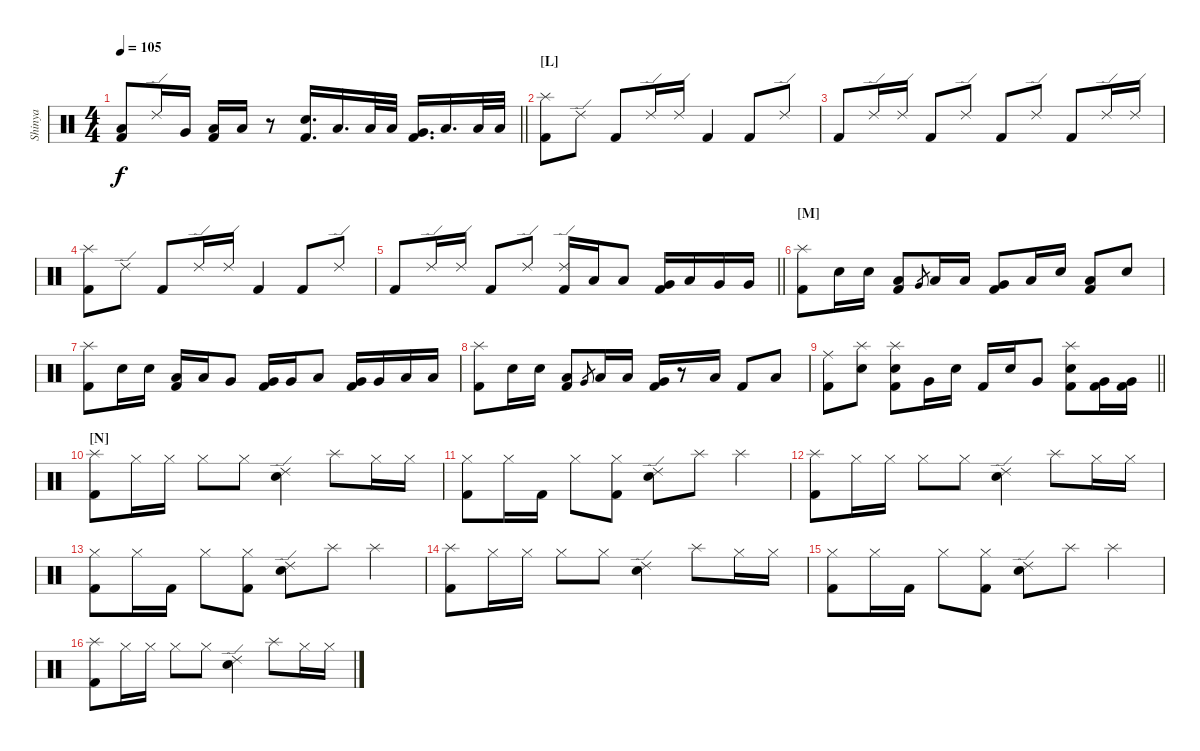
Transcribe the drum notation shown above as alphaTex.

\track ("Shinya" "Shinya") {instrument percussion}
\staff {score}
\articulation defaults
\ts (4 4)
\tempo 105
\clef neutral
\barLineRight lightlight
\ks c
("Low Floor Tom (hit)" "Kick (hit) 2").8{dy f} "Ride (edge) 2".16 "Very Low Tom (hit)".16 ("Low Floor Tom (hit)" "Kick (hit) 2").16 "Low Floor Tom (hit)".16 r.8 ("Snare (hit) 2" "Kick (hit) 2").16{d} "Low Tom (hit)".16{d} "Low Tom (hit)".32 "Low Tom (hit)".32 ("Very Low Tom (hit)" "Kick (hit) 2").16{d} "Low Floor Tom (hit)".16{d} "Low Floor Tom (hit)".32 "Low Floor Tom (hit)".32 |
\section ("" "[L]")
("Splash (hit)" "Kick (hit) 2").8 "Ride (edge) 2".8 "Kick (hit) 2".8 "Ride (edge) 2".16 "Ride (edge) 2".16 "Kick (hit) 2".4 "Kick (hit) 2".8 "Ride (edge) 2".8 |
"Kick (hit) 2".8 "Ride (edge) 2".16 "Ride (edge) 2".16 "Kick (hit) 2".8 "Ride (edge) 2".8 "Kick (hit) 2".8 "Ride (edge) 2".8 "Kick (hit) 2".8 "Ride (edge) 2".16 "Ride (edge) 2".16 |
("Splash (hit)" "Kick (hit) 2").8 "Ride (edge) 2".8 "Kick (hit) 2".8 "Ride (edge) 2".16 "Ride (edge) 2".16 "Kick (hit) 2".4 "Kick (hit) 2".8 "Ride (edge) 2".8 |
\barLineRight lightlight "Kick (hit) 2".8 "Ride (edge) 2".16 "Ride (edge) 2".16 "Kick (hit) 2".8 "Ride (edge) 2".8
("Ride (edge) 2" "Kick (hit) 2").16 "Low Tom (hit)".16 "Low Tom (hit)".8 ("Very Low Tom (hit)" "Kick (hit) 2").16 "Low Tom (hit)".16 "Very Low Tom (hit)".16 "Very Low Tom (hit)".16 |
\section ("" "[M]")
("Splash (hit)" "Kick (hit) 2").8 "Snare (hit) 2".16 "Snare (hit) 2".16 ("Low Tom (hit)" "Kick (hit) 2").8 "Very Low Tom (hit)".8{gr} "Low Tom (hit)".16 "Low Tom (hit)".16 ("Very Low Tom (hit)" "Kick (hit) 2").8 "Low Tom (hit)".16 "Snare (hit) 2".16 ("Low Floor Tom (hit)" "Kick (hit) 2").8 "Snare (hit) 2".8 |
("Splash (hit)" "Kick (hit) 2").8 "Snare (hit) 2".16 "Snare (hit) 2".16 ("Low Tom (hit)" "Kick (hit) 2").16 "Low Tom (hit)".16 "Very Low Tom (hit)".8 ("Very Low Tom (hit)" "Kick (hit) 2").16 "Very Low Tom (hit)".16 "Low Floor Tom (hit)".8 ("Very Low Tom (hit)" "Kick (hit) 2").16 "Very Low Tom (hit)".16 "Low Floor Tom (hit)".16 "Low Floor Tom (hit)".16 |
("Splash (hit)" "Kick (hit) 2").8 "Snare (hit) 2".16 "Snare (hit) 2".16 ("Low Tom (hit)" "Kick (hit) 2").8 "Very Low Tom (hit)".8{gr} "Low Tom (hit)".16 "Low Tom (hit)".16 ("Very Low Tom (hit)" "Kick (hit) 2").16 r.8 "Low Floor Tom (hit)".16 "Kick (hit) 2".8 "Low Floor Tom (hit)".8 |
\barLineRight lightlight
("Ride (middle)" "Kick (hit) 2").8 ("Splash (hit)" "Snare (hit) 2").8 ("Splash (hit)" "Snare (hit) 2" "Kick (hit) 2").8 "Very Low Tom (hit)".16 "Snare (hit) 2".16 "Kick (hit) 2".16 "Snare (hit) 2".16 "Very Low Tom (hit)".8 ("Splash (hit)" "Snare (hit) 2" "Kick (hit) 2").8 ("Very Low Tom (hit)" "Kick (hit) 2").16 ("Very Low Tom (hit)" "Kick (hit) 2").16 |
\section ("" "[N]")
("Splash (hit)" "Kick (hit) 2").8 "Hi-Hat (closed)".16 "Hi-Hat (closed)".16 "Hi-Hat (closed)".8 "Hi-Hat (closed)".8 ("Ride (edge) 2" "Snare (hit) 2").4 "Splash (hit)".8 "Hi-Hat (closed)".16 "Hi-Hat (closed)".16 |
("Hi-Hat (closed)" "Kick (hit) 2").8 "Hi-Hat (closed)".16 "Kick (hit) 2".16 "Hi-Hat (closed)".8 ("Hi-Hat (closed)" "Kick (hit) 2").8 ("Ride (edge) 2" "Snare (hit) 2").8 "Splash (hit)".8 "Splash (hit)".4 |
("Splash (hit)" "Kick (hit) 2").8 "Hi-Hat (closed)".16 "Hi-Hat (closed)".16 "Hi-Hat (closed)".8 "Hi-Hat (closed)".8 ("Ride (edge) 2" "Snare (hit) 2").4 "Splash (hit)".8 "Hi-Hat (closed)".16 "Hi-Hat (closed)".16 |
("Hi-Hat (closed)" "Kick (hit) 2").8 "Hi-Hat (closed)".16 "Kick (hit) 2".16 "Hi-Hat (closed)".8 ("Hi-Hat (closed)" "Kick (hit) 2").8 ("Ride (edge) 2" "Snare (hit) 2").8 "Splash (hit)".8 "Splash (hit)".4 |
("Splash (hit)" "Kick (hit) 2").8 "Hi-Hat (closed)".16 "Hi-Hat (closed)".16 "Hi-Hat (closed)".8 "Hi-Hat (closed)".8 ("Ride (edge) 2" "Snare (hit) 2").4 "Splash (hit)".8 "Hi-Hat (closed)".16 "Hi-Hat (closed)".16 |
("Hi-Hat (closed)" "Kick (hit) 2").8 "Hi-Hat (closed)".16 "Kick (hit) 2".16 "Hi-Hat (closed)".8 ("Hi-Hat (closed)" "Kick (hit) 2").8 ("Ride (edge) 2" "Snare (hit) 2").8 "Splash (hit)".8 "Splash (hit)".4 |
("Splash (hit)" "Kick (hit) 2").8 "Hi-Hat (closed)".16 "Hi-Hat (closed)".16 "Hi-Hat (closed)".8 "Hi-Hat (closed)".8 ("Ride (edge) 2" "Snare (hit) 2").4 "Splash (hit)".8 "Hi-Hat (closed)".16 "Hi-Hat (closed)".16
